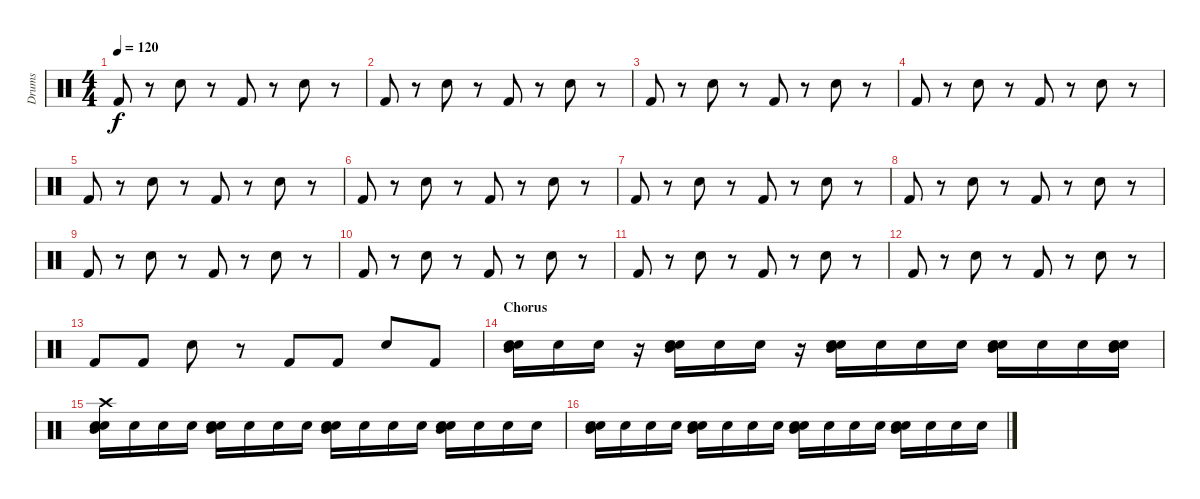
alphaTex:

\track ("Drums" "Drums") {instrument percussion}
\staff {score}
\articulation defaults
\ts (4 4)
\tempo 120
\clef neutral
\ks c "Kick (hit) 2".8{dy f}
r.8 "Snare (hit) 2".8 r.8 "Kick (hit) 2".8 r.8 "Snare (hit) 2".8 r.8 |
"Kick (hit) 2".8 r.8 "Snare (hit) 2".8 r.8 "Kick (hit) 2".8 r.8 "Snare (hit) 2".8 r.8 |
"Kick (hit) 2".8 r.8 "Snare (hit) 2".8 r.8 "Kick (hit) 2".8 r.8 "Snare (hit) 2".8 r.8 |
"Kick (hit) 2".8 r.8 "Snare (hit) 2".8 r.8 "Kick (hit) 2".8 r.8 "Snare (hit) 2".8 r.8 |
"Kick (hit) 2".8 r.8 "Snare (hit) 2".8 r.8 "Kick (hit) 2".8 r.8 "Snare (hit) 2".8 r.8 |
"Kick (hit) 2".8 r.8 "Snare (hit) 2".8 r.8 "Kick (hit) 2".8 r.8 "Snare (hit) 2".8 r.8 |
"Kick (hit) 2".8 r.8 "Snare (hit) 2".8 r.8 "Kick (hit) 2".8 r.8 "Snare (hit) 2".8 r.8 |
"Kick (hit) 2".8 r.8 "Snare (hit) 2".8 r.8 "Kick (hit) 2".8 r.8 "Snare (hit) 2".8 r.8 |
"Kick (hit) 2".8 r.8 "Snare (hit) 2".8 r.8 "Kick (hit) 2".8 r.8 "Snare (hit) 2".8 r.8 |
"Kick (hit) 2".8 r.8 "Snare (hit) 2".8 r.8 "Kick (hit) 2".8 r.8 "Snare (hit) 2".8 r.8 |
"Kick (hit) 2".8 r.8 "Snare (hit) 2".8 r.8 "Kick (hit) 2".8 r.8 "Snare (hit) 2".8 r.8 |
"Kick (hit) 2".8 r.8 "Snare (hit) 2".8 r.8 "Kick (hit) 2".8 r.8 "Snare (hit) 2".8 r.8 |
"Kick (hit) 2".8 "Kick (hit) 2".8 "Snare (hit) 2".8 r.8 "Kick (hit) 2".8 "Kick (hit) 2".8 "Snare (hit) 2".8 "Kick (hit) 2".8 |
\section ("" "Chorus")
("Mid Tom (hit)" "Electric Snare (hit)" "Snare (hit) 2").16 "Electric Snare (hit)".16 "Electric Snare (hit)".16 r.16 ("Mid Tom (hit)" "Electric Snare (hit)" "Snare (hit) 2").16 "Electric Snare (hit)".16 "Electric Snare (hit)".16 r.16 ("Mid Tom (hit)" "Electric Snare (hit)" "Snare (hit) 2").16 "Electric Snare (hit)".16 "Electric Snare (hit)".16 "Electric Snare (hit)".16 ("Mid Tom (hit)" "Electric Snare (hit)" "Snare (hit) 2").16 "Electric Snare (hit)".16 "Electric Snare (hit)".16 ("Mid Tom (hit)" "Electric Snare (hit)" "Snare (hit) 2").16 |
("Electric Snare (hit)" "Snare (hit) 2" "Mid Tom (hit)" "Crash high (hit)").16 "Snare (hit) 2".16 "Snare (hit) 2".16 "Snare (hit) 2".16 ("Mid Tom (hit)" "Snare (hit) 2" "Electric Snare (hit)").16 "Snare (hit) 2".16 "Snare (hit) 2".16 "Snare (hit) 2".16 ("Mid Tom (hit)" "Snare (hit) 2" "Electric Snare (hit)").16 "Snare (hit) 2".16 "Snare (hit) 2".16 "Snare (hit) 2".16 ("Mid Tom (hit)" "Snare (hit) 2" "Electric Snare (hit)").16 "Snare (hit) 2".16 "Snare (hit) 2".16 "Snare (hit) 2".16 |
("Electric Snare (hit)" "Snare (hit) 2" "Mid Tom (hit)").16 "Snare (hit) 2".16 "Snare (hit) 2".16 "Snare (hit) 2".16 ("Mid Tom (hit)" "Snare (hit) 2" "Electric Snare (hit)").16 "Snare (hit) 2".16 "Snare (hit) 2".16 "Snare (hit) 2".16 ("Mid Tom (hit)" "Snare (hit) 2" "Electric Snare (hit)").16 "Snare (hit) 2".16 "Snare (hit) 2".16 "Snare (hit) 2".16 ("Mid Tom (hit)" "Snare (hit) 2" "Electric Snare (hit)").16 "Snare (hit) 2".16 "Snare (hit) 2".16 "Snare (hit) 2".16
